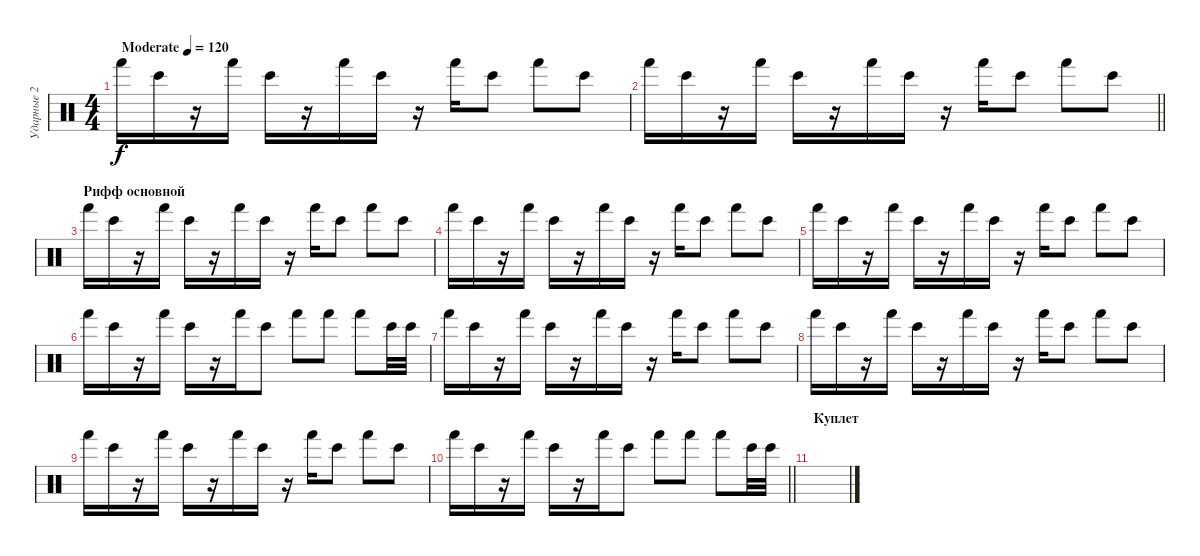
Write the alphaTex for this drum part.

\track ("Ударные 2" "Ударные 2") {instrument percussion}
\staff {score}
\articulation defaults
\ts (4 4)
\tempo (120 "Moderate")
\clef neutral
\ks c "Hand (hit)".16{dy f} "Bongo High (hit)".16
r.16 "Hand (hit)".16 "Bongo High (hit)".16 r.16 "Hand (hit)".16 "Bongo High (hit)".16 r.16 "Hand (hit)".16 "Bongo High (hit)".8 "Hand (hit)".8 "Bongo High (hit)".8 |
\barLineRight lightlight "Hand (hit)".16 "Bongo High (hit)".16
r.16 "Hand (hit)".16 "Bongo High (hit)".16 r.16 "Hand (hit)".16 "Bongo High (hit)".16 r.16 "Hand (hit)".16 "Bongo High (hit)".8 "Hand (hit)".8 "Bongo High (hit)".8 |
\section ("" "Рифф основной")
"Hand (hit)".16 "Bongo High (hit)".16 r.16 "Hand (hit)".16 "Bongo High (hit)".16 r.16 "Hand (hit)".16 "Bongo High (hit)".16 r.16 "Hand (hit)".16 "Bongo High (hit)".8 "Hand (hit)".8 "Bongo High (hit)".8 |
"Hand (hit)".16 "Bongo High (hit)".16 r.16 "Hand (hit)".16 "Bongo High (hit)".16 r.16 "Hand (hit)".16 "Bongo High (hit)".16 r.16 "Hand (hit)".16 "Bongo High (hit)".8 "Hand (hit)".8 "Bongo High (hit)".8 |
"Hand (hit)".16 "Bongo High (hit)".16 r.16 "Hand (hit)".16 "Bongo High (hit)".16 r.16 "Hand (hit)".16 "Bongo High (hit)".16 r.16 "Hand (hit)".16 "Bongo High (hit)".8 "Hand (hit)".8 "Bongo High (hit)".8 |
"Hand (hit)".16 "Bongo High (hit)".16 r.16 "Hand (hit)".16 "Bongo High (hit)".16 r.16 "Hand (hit)".16 "Bongo High (hit)".8 "Hand (hit)".8 "Hand (hit)".8 "Hand (hit)".8 "Bongo High (hit)".32 "Bongo High (hit)".32 |
"Hand (hit)".16 "Bongo High (hit)".16 r.16 "Hand (hit)".16 "Bongo High (hit)".16 r.16 "Hand (hit)".16 "Bongo High (hit)".16 r.16 "Hand (hit)".16 "Bongo High (hit)".8 "Hand (hit)".8 "Bongo High (hit)".8 |
"Hand (hit)".16 "Bongo High (hit)".16 r.16 "Hand (hit)".16 "Bongo High (hit)".16 r.16 "Hand (hit)".16 "Bongo High (hit)".16 r.16 "Hand (hit)".16 "Bongo High (hit)".8 "Hand (hit)".8 "Bongo High (hit)".8 |
"Hand (hit)".16 "Bongo High (hit)".16 r.16 "Hand (hit)".16 "Bongo High (hit)".16 r.16 "Hand (hit)".16 "Bongo High (hit)".16 r.16 "Hand (hit)".16 "Bongo High (hit)".8 "Hand (hit)".8 "Bongo High (hit)".8 |
\barLineRight lightlight "Hand (hit)".16 "Bongo High (hit)".16
r.16 "Hand (hit)".16 "Bongo High (hit)".16 r.16 "Hand (hit)".16 "Bongo High (hit)".8 "Hand (hit)".8 "Hand (hit)".8 "Hand (hit)".8 "Bongo High (hit)".32 "Bongo High (hit)".32 |
\section ("" "Куплет")
